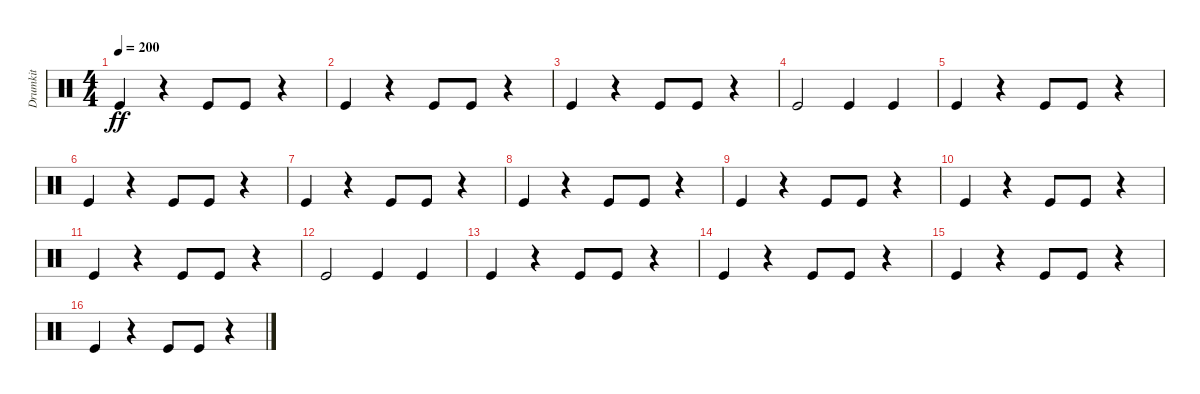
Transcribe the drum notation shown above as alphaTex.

\track ("Drumkit" "Drumkit") {instrument percussion}
\staff {score}
\articulation defaults
\ts (4 4)
\tempo 200
\clef neutral
\ks c "Kick (hit)".4{dy ff}
r.4 "Kick (hit)".8 "Kick (hit)".8 r.4 |
"Kick (hit)".4 r.4 "Kick (hit)".8 "Kick (hit)".8 r.4 |
"Kick (hit)".4 r.4 "Kick (hit)".8 "Kick (hit)".8 r.4 |
"Kick (hit)".2 "Kick (hit)".4 "Kick (hit)".4 |
"Kick (hit)".4 r.4 "Kick (hit)".8 "Kick (hit)".8 r.4 |
"Kick (hit)".4 r.4 "Kick (hit)".8 "Kick (hit)".8 r.4 |
"Kick (hit)".4 r.4 "Kick (hit)".8 "Kick (hit)".8 r.4 |
"Kick (hit)".4 r.4 "Kick (hit)".8 "Kick (hit)".8 r.4 |
"Kick (hit)".4 r.4 "Kick (hit)".8 "Kick (hit)".8 r.4 |
"Kick (hit)".4 r.4 "Kick (hit)".8 "Kick (hit)".8 r.4 |
"Kick (hit)".4 r.4 "Kick (hit)".8 "Kick (hit)".8 r.4 |
"Kick (hit)".2 "Kick (hit)".4 "Kick (hit)".4 |
"Kick (hit)".4 r.4 "Kick (hit)".8 "Kick (hit)".8 r.4 |
"Kick (hit)".4 r.4 "Kick (hit)".8 "Kick (hit)".8 r.4 |
"Kick (hit)".4 r.4 "Kick (hit)".8 "Kick (hit)".8 r.4 |
"Kick (hit)".4 r.4 "Kick (hit)".8 "Kick (hit)".8 r.4
